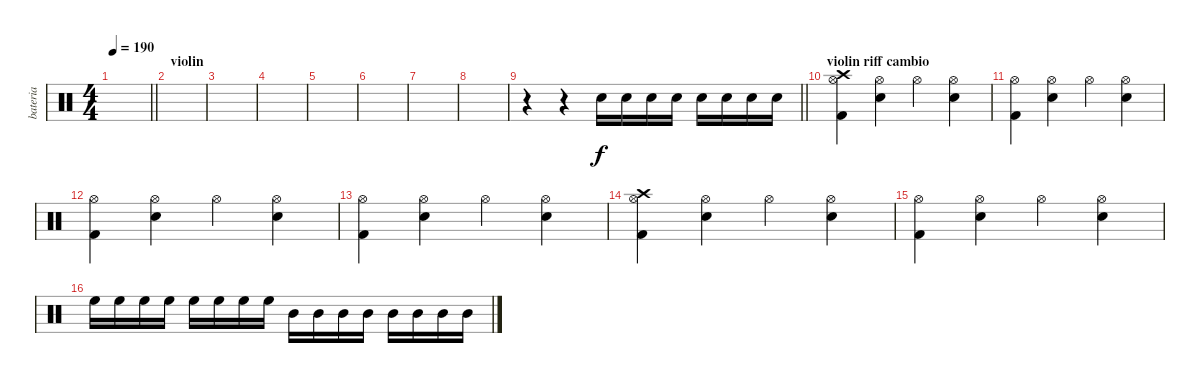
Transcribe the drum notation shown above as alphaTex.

\track ("bateria" "bateria") {instrument percussion}
\staff {score}
\articulation defaults
\ts (4 4)
\tempo 190
\clef neutral
\barLineRight lightlight
\ks c
|
\section ("" "violin")
|
|
|
|
|
|
|
\barLineRight lightlight
r.4 r.4 "Snare (hit) 2".16 "Snare (hit) 2".16 "Snare (hit) 2".16 "Snare (hit) 2".16 "Snare (hit) 2".16 "Snare (hit) 2".16 "Snare (hit) 2".16 "Snare (hit) 2".16 |
\section ("" "violin riff cambio")
("Hi-Hat (open)" "Kick (hit) 2" "Crash high (hit)").4 ("Hi-Hat (open)" "Electric Snare (hit)").4 "Hi-Hat (open)".4 ("Hi-Hat (open)" "Electric Snare (hit)").4 |
("Hi-Hat (open)" "Kick (hit) 2").4 ("Hi-Hat (open)" "Electric Snare (hit)").4 "Hi-Hat (open)".4 ("Hi-Hat (open)" "Electric Snare (hit)").4 |
("Hi-Hat (open)" "Kick (hit) 2").4 ("Hi-Hat (open)" "Electric Snare (hit)").4 "Hi-Hat (open)".4 ("Hi-Hat (open)" "Electric Snare (hit)").4 |
("Hi-Hat (open)" "Kick (hit) 2").4 ("Hi-Hat (open)" "Electric Snare (hit)").4 "Hi-Hat (open)".4 ("Hi-Hat (open)" "Electric Snare (hit)").4 |
("Hi-Hat (open)" "Kick (hit) 2" "Crash high (hit)").4 ("Hi-Hat (open)" "Electric Snare (hit)").4 "Hi-Hat (open)".4 ("Hi-Hat (open)" "Electric Snare (hit)").4 |
("Hi-Hat (open)" "Kick (hit) 2").4 ("Hi-Hat (open)" "Electric Snare (hit)").4 "Hi-Hat (open)".4 ("Hi-Hat (open)" "Electric Snare (hit)").4 |
"High Floor Tom (hit)".16 "High Floor Tom (hit)".16 "High Floor Tom (hit)".16 "High Floor Tom (hit)".16 "High Floor Tom (hit)".16 "High Floor Tom (hit)".16 "High Floor Tom (hit)".16 "High Floor Tom (hit)".16 "Mid Tom (hit)".16 "Mid Tom (hit)".16 "Mid Tom (hit)".16 "Mid Tom (hit)".16 "Mid Tom (hit)".16 "Mid Tom (hit)".16 "Mid Tom (hit)".16 "Mid Tom (hit)".16
